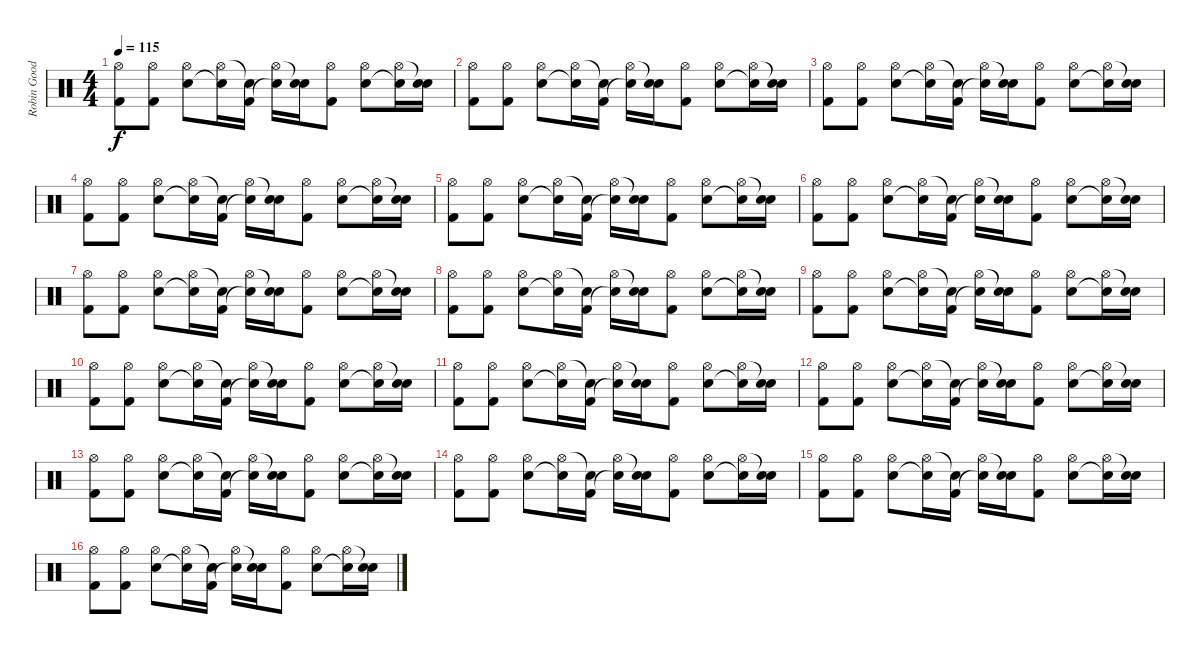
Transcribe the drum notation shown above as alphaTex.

\track ("Robin Goodridge" "Robin Good") {instrument percussion}
\staff {score}
\articulation defaults
\ts (4 4)
\tempo 115
\clef neutral
\ks c
("Hi-Hat (open)" "Kick (hit) 2").8{dy f} ("Hi-Hat (open)" "Kick (hit) 2").8 ("Hi-Hat (open)" "Snare (hit) 2").8 ("Hi-Hat (open)" "Snare (hit)"{t}).16 ("Snare (hit)"{t} "Kick (hit) 2").16 ("Hi-Hat (open)" "Snare (hit)"{t}).16 ("Snare (hit)"{t} "Snare (hit) 2").16 ("Hi-Hat (open)" "Kick (hit) 2").8 ("Hi-Hat (open)" "Snare (hit) 2").8 ("Hi-Hat (open)" "Snare (hit) 2"{t}).16 ("Snare (hit)"{t} "Snare (hit) 2").16 |
("Hi-Hat (open)" "Kick (hit) 2").8 ("Hi-Hat (open)" "Kick (hit) 2").8 ("Hi-Hat (open)" "Snare (hit) 2").8 ("Hi-Hat (open)" "Snare (hit)"{t}).16 ("Snare (hit)"{t} "Kick (hit) 2").16 ("Hi-Hat (open)" "Snare (hit)"{t}).16 ("Snare (hit)"{t} "Snare (hit) 2").16 ("Hi-Hat (open)" "Kick (hit) 2").8 ("Hi-Hat (open)" "Snare (hit) 2").8 ("Hi-Hat (open)" "Snare (hit) 2"{t}).16 ("Snare (hit)"{t} "Snare (hit) 2").16 |
("Hi-Hat (open)" "Kick (hit) 2").8 ("Hi-Hat (open)" "Kick (hit) 2").8 ("Hi-Hat (open)" "Snare (hit) 2").8 ("Hi-Hat (open)" "Snare (hit)"{t}).16 ("Snare (hit)"{t} "Kick (hit) 2").16 ("Hi-Hat (open)" "Snare (hit)"{t}).16 ("Snare (hit)"{t} "Snare (hit) 2").16 ("Hi-Hat (open)" "Kick (hit) 2").8 ("Hi-Hat (open)" "Snare (hit) 2").8 ("Hi-Hat (open)" "Snare (hit) 2"{t}).16 ("Snare (hit)"{t} "Snare (hit) 2").16 |
("Hi-Hat (open)" "Kick (hit) 2").8 ("Hi-Hat (open)" "Kick (hit) 2").8 ("Hi-Hat (open)" "Snare (hit) 2").8 ("Hi-Hat (open)" "Snare (hit)"{t}).16 ("Snare (hit)"{t} "Kick (hit) 2").16 ("Hi-Hat (open)" "Snare (hit)"{t}).16 ("Snare (hit)"{t} "Snare (hit) 2").16 ("Hi-Hat (open)" "Kick (hit) 2").8 ("Hi-Hat (open)" "Snare (hit) 2").8 ("Hi-Hat (open)" "Snare (hit) 2"{t}).16 ("Snare (hit)"{t} "Snare (hit) 2").16 |
("Hi-Hat (open)" "Kick (hit) 2").8 ("Hi-Hat (open)" "Kick (hit) 2").8 ("Hi-Hat (open)" "Snare (hit) 2").8 ("Hi-Hat (open)" "Snare (hit)"{t}).16 ("Snare (hit)"{t} "Kick (hit) 2").16 ("Hi-Hat (open)" "Snare (hit)"{t}).16 ("Snare (hit)"{t} "Snare (hit) 2").16 ("Hi-Hat (open)" "Kick (hit) 2").8 ("Hi-Hat (open)" "Snare (hit) 2").8 ("Hi-Hat (open)" "Snare (hit) 2"{t}).16 ("Snare (hit)"{t} "Snare (hit) 2").16 |
("Hi-Hat (open)" "Kick (hit) 2").8 ("Hi-Hat (open)" "Kick (hit) 2").8 ("Hi-Hat (open)" "Snare (hit) 2").8 ("Hi-Hat (open)" "Snare (hit)"{t}).16 ("Snare (hit)"{t} "Kick (hit) 2").16 ("Hi-Hat (open)" "Snare (hit)"{t}).16 ("Snare (hit)"{t} "Snare (hit) 2").16 ("Hi-Hat (open)" "Kick (hit) 2").8 ("Hi-Hat (open)" "Snare (hit) 2").8 ("Hi-Hat (open)" "Snare (hit) 2"{t}).16 ("Snare (hit)"{t} "Snare (hit) 2").16 |
("Hi-Hat (open)" "Kick (hit) 2").8 ("Hi-Hat (open)" "Kick (hit) 2").8 ("Hi-Hat (open)" "Snare (hit) 2").8 ("Hi-Hat (open)" "Snare (hit)"{t}).16 ("Snare (hit)"{t} "Kick (hit) 2").16 ("Hi-Hat (open)" "Snare (hit)"{t}).16 ("Snare (hit)"{t} "Snare (hit) 2").16 ("Hi-Hat (open)" "Kick (hit) 2").8 ("Hi-Hat (open)" "Snare (hit) 2").8 ("Hi-Hat (open)" "Snare (hit) 2"{t}).16 ("Snare (hit)"{t} "Snare (hit) 2").16 |
("Hi-Hat (open)" "Kick (hit) 2").8 ("Hi-Hat (open)" "Kick (hit) 2").8 ("Hi-Hat (open)" "Snare (hit) 2").8 ("Hi-Hat (open)" "Snare (hit)"{t}).16 ("Snare (hit)"{t} "Kick (hit) 2").16 ("Hi-Hat (open)" "Snare (hit)"{t}).16 ("Snare (hit)"{t} "Snare (hit) 2").16 ("Hi-Hat (open)" "Kick (hit) 2").8 ("Hi-Hat (open)" "Snare (hit) 2").8 ("Hi-Hat (open)" "Snare (hit) 2"{t}).16 ("Snare (hit)"{t} "Snare (hit) 2").16 |
("Hi-Hat (open)" "Kick (hit) 2").8 ("Hi-Hat (open)" "Kick (hit) 2").8 ("Hi-Hat (open)" "Snare (hit) 2").8 ("Hi-Hat (open)" "Snare (hit)"{t}).16 ("Snare (hit)"{t} "Kick (hit) 2").16 ("Hi-Hat (open)" "Snare (hit)"{t}).16 ("Snare (hit)"{t} "Snare (hit) 2").16 ("Hi-Hat (open)" "Kick (hit) 2").8 ("Hi-Hat (open)" "Snare (hit) 2").8 ("Hi-Hat (open)" "Snare (hit) 2"{t}).16 ("Snare (hit)"{t} "Snare (hit) 2").16 |
("Hi-Hat (open)" "Kick (hit) 2").8 ("Hi-Hat (open)" "Kick (hit) 2").8 ("Hi-Hat (open)" "Snare (hit) 2").8 ("Hi-Hat (open)" "Snare (hit)"{t}).16 ("Snare (hit)"{t} "Kick (hit) 2").16 ("Hi-Hat (open)" "Snare (hit)"{t}).16 ("Snare (hit)"{t} "Snare (hit) 2").16 ("Hi-Hat (open)" "Kick (hit) 2").8 ("Hi-Hat (open)" "Snare (hit) 2").8 ("Hi-Hat (open)" "Snare (hit) 2"{t}).16 ("Snare (hit)"{t} "Snare (hit) 2").16 |
("Hi-Hat (open)" "Kick (hit) 2").8 ("Hi-Hat (open)" "Kick (hit) 2").8 ("Hi-Hat (open)" "Snare (hit) 2").8 ("Hi-Hat (open)" "Snare (hit)"{t}).16 ("Snare (hit)"{t} "Kick (hit) 2").16 ("Hi-Hat (open)" "Snare (hit)"{t}).16 ("Snare (hit)"{t} "Snare (hit) 2").16 ("Hi-Hat (open)" "Kick (hit) 2").8 ("Hi-Hat (open)" "Snare (hit) 2").8 ("Hi-Hat (open)" "Snare (hit) 2"{t}).16 ("Snare (hit)"{t} "Snare (hit) 2").16 |
("Hi-Hat (open)" "Kick (hit) 2").8 ("Hi-Hat (open)" "Kick (hit) 2").8 ("Hi-Hat (open)" "Snare (hit) 2").8 ("Hi-Hat (open)" "Snare (hit)"{t}).16 ("Snare (hit)"{t} "Kick (hit) 2").16 ("Hi-Hat (open)" "Snare (hit)"{t}).16 ("Snare (hit)"{t} "Snare (hit) 2").16 ("Hi-Hat (open)" "Kick (hit) 2").8 ("Hi-Hat (open)" "Snare (hit) 2").8 ("Hi-Hat (open)" "Snare (hit) 2"{t}).16 ("Snare (hit)"{t} "Snare (hit) 2").16 |
("Hi-Hat (open)" "Kick (hit) 2").8 ("Hi-Hat (open)" "Kick (hit) 2").8 ("Hi-Hat (open)" "Snare (hit) 2").8 ("Hi-Hat (open)" "Snare (hit)"{t}).16 ("Snare (hit)"{t} "Kick (hit) 2").16 ("Hi-Hat (open)" "Snare (hit)"{t}).16 ("Snare (hit)"{t} "Snare (hit) 2").16 ("Hi-Hat (open)" "Kick (hit) 2").8 ("Hi-Hat (open)" "Snare (hit) 2").8 ("Hi-Hat (open)" "Snare (hit) 2"{t}).16 ("Snare (hit)"{t} "Snare (hit) 2").16 |
("Hi-Hat (open)" "Kick (hit) 2").8 ("Hi-Hat (open)" "Kick (hit) 2").8 ("Hi-Hat (open)" "Snare (hit) 2").8 ("Hi-Hat (open)" "Snare (hit)"{t}).16 ("Snare (hit)"{t} "Kick (hit) 2").16 ("Hi-Hat (open)" "Snare (hit)"{t}).16 ("Snare (hit)"{t} "Snare (hit) 2").16 ("Hi-Hat (open)" "Kick (hit) 2").8 ("Hi-Hat (open)" "Snare (hit) 2").8 ("Hi-Hat (open)" "Snare (hit) 2"{t}).16 ("Snare (hit)"{t} "Snare (hit) 2").16 |
("Hi-Hat (open)" "Kick (hit) 2").8 ("Hi-Hat (open)" "Kick (hit) 2").8 ("Hi-Hat (open)" "Snare (hit) 2").8 ("Hi-Hat (open)" "Snare (hit)"{t}).16 ("Snare (hit)"{t} "Kick (hit) 2").16 ("Hi-Hat (open)" "Snare (hit)"{t}).16 ("Snare (hit)"{t} "Snare (hit) 2").16 ("Hi-Hat (open)" "Kick (hit) 2").8 ("Hi-Hat (open)" "Snare (hit) 2").8 ("Hi-Hat (open)" "Snare (hit) 2"{t}).16 ("Snare (hit)"{t} "Snare (hit) 2").16 |
("Hi-Hat (open)" "Kick (hit) 2").8 ("Hi-Hat (open)" "Kick (hit) 2").8 ("Hi-Hat (open)" "Snare (hit) 2").8 ("Hi-Hat (open)" "Snare (hit)"{t}).16 ("Snare (hit)"{t} "Kick (hit) 2").16 ("Hi-Hat (open)" "Snare (hit)"{t}).16 ("Snare (hit)"{t} "Snare (hit) 2").16 ("Hi-Hat (open)" "Kick (hit) 2").8 ("Hi-Hat (open)" "Snare (hit) 2").8 ("Hi-Hat (open)" "Snare (hit) 2"{t}).16 ("Snare (hit)"{t} "Snare (hit) 2").16
